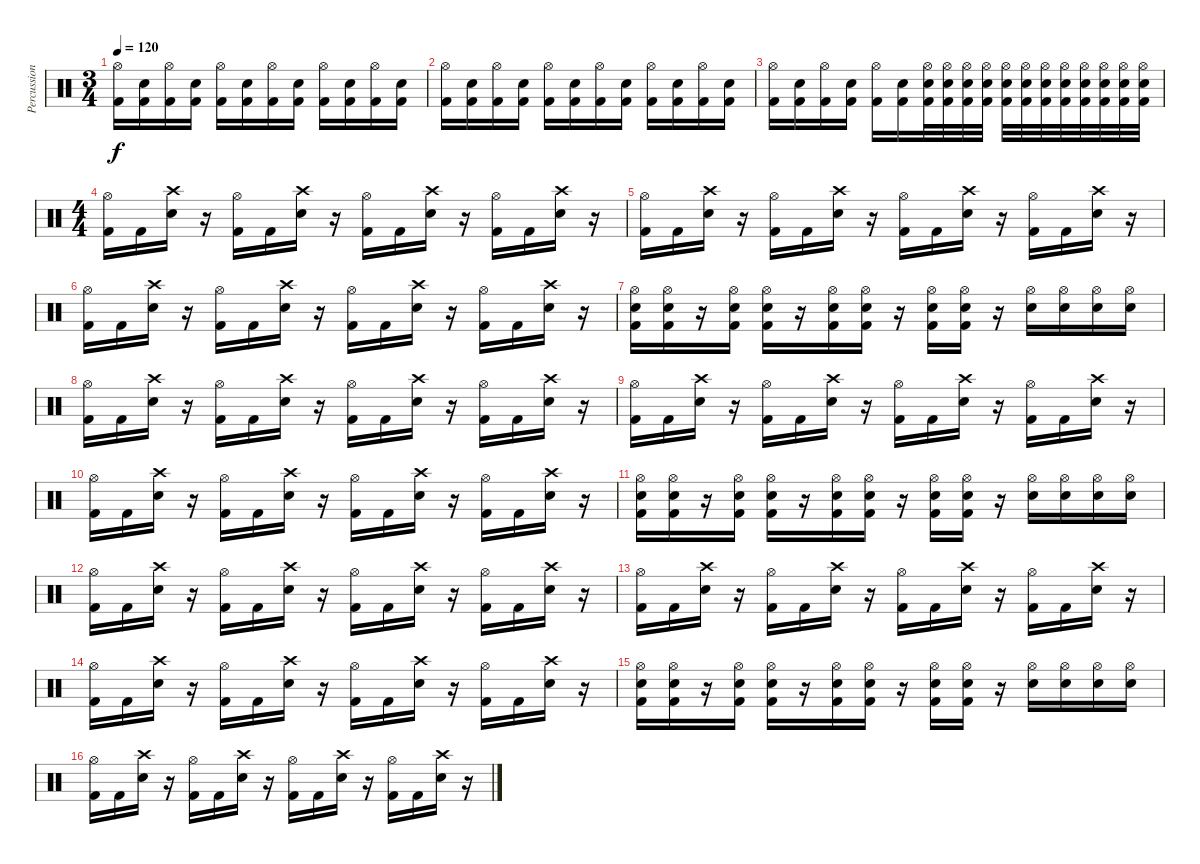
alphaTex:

\track ("Percussion" "Percussion") {instrument percussion}
\staff {score}
\articulation defaults
\ts (3 4)
\tempo 120
\clef neutral
\ks c
("Hi-Hat (open)" "Kick (hit) 2").16{dy f} ("Electric Snare (hit)" "Kick (hit) 2").16 ("Hi-Hat (open)" "Kick (hit) 2").16 ("Electric Snare (hit)" "Kick (hit) 2").16 ("Hi-Hat (open)" "Kick (hit) 2").16 ("Electric Snare (hit)" "Kick (hit) 2").16 ("Hi-Hat (open)" "Kick (hit) 2").16 ("Electric Snare (hit)" "Kick (hit) 2").16 ("Hi-Hat (open)" "Kick (hit) 2").16 ("Electric Snare (hit)" "Kick (hit) 2").16 ("Hi-Hat (open)" "Kick (hit) 2").16 ("Electric Snare (hit)" "Kick (hit) 2").16 |
("Hi-Hat (open)" "Kick (hit) 2").16 ("Electric Snare (hit)" "Kick (hit) 2").16 ("Hi-Hat (open)" "Kick (hit) 2").16 ("Electric Snare (hit)" "Kick (hit) 2").16 ("Hi-Hat (open)" "Kick (hit) 2").16 ("Electric Snare (hit)" "Kick (hit) 2").16 ("Hi-Hat (open)" "Kick (hit) 2").16 ("Electric Snare (hit)" "Kick (hit) 2").16 ("Hi-Hat (open)" "Kick (hit) 2").16 ("Electric Snare (hit)" "Kick (hit) 2").16 ("Hi-Hat (open)" "Kick (hit) 2").16 ("Electric Snare (hit)" "Kick (hit) 2").16 |
("Hi-Hat (open)" "Kick (hit) 2").16 ("Electric Snare (hit)" "Kick (hit) 2").16 ("Hi-Hat (open)" "Kick (hit) 2").16 ("Electric Snare (hit)" "Kick (hit) 2").16 ("Hi-Hat (open)" "Kick (hit) 2").16 ("Electric Snare (hit)" "Kick (hit) 2").16 ("Hi-Hat (open)" "Electric Snare (hit)" "Kick (hit) 2").32 ("Hi-Hat (open)" "Electric Snare (hit)" "Kick (hit) 2").32 ("Hi-Hat (open)" "Electric Snare (hit)" "Kick (hit) 2").32 ("Hi-Hat (open)" "Electric Snare (hit)" "Kick (hit) 2").32 ("Hi-Hat (open)" "Electric Snare (hit)" "Kick (hit) 2").32 ("Hi-Hat (open)" "Electric Snare (hit)" "Kick (hit) 2").32 ("Hi-Hat (open)" "Electric Snare (hit)" "Kick (hit) 2").32 ("Hi-Hat (open)" "Electric Snare (hit)" "Kick (hit) 2").32 ("Hi-Hat (open)" "Electric Snare (hit)" "Kick (hit) 2").32 ("Hi-Hat (open)" "Electric Snare (hit)" "Kick (hit) 2").32 ("Hi-Hat (open)" "Electric Snare (hit)" "Kick (hit) 2").32 ("Hi-Hat (open)" "Electric Snare (hit)" "Kick (hit) 2").32 |
\ts (4 4)
("Hi-Hat (open)" "Kick (hit) 2").16 "Kick (hit) 2".16 ("Crash high (hit)" "Electric Snare (hit)").16 r.16 ("Hi-Hat (open)" "Kick (hit) 2").16 "Kick (hit) 2".16 ("Crash high (hit)" "Electric Snare (hit)").16 r.16 ("Hi-Hat (open)" "Kick (hit) 2").16 "Kick (hit) 2".16 ("Crash high (hit)" "Electric Snare (hit)").16 r.16 ("Hi-Hat (open)" "Kick (hit) 2").16 "Kick (hit) 2".16 ("Crash high (hit)" "Electric Snare (hit)").16 r.16 |
("Hi-Hat (open)" "Kick (hit) 2").16 "Kick (hit) 2".16 ("Crash high (hit)" "Electric Snare (hit)").16 r.16 ("Hi-Hat (open)" "Kick (hit) 2").16 "Kick (hit) 2".16 ("Crash high (hit)" "Electric Snare (hit)").16 r.16 ("Hi-Hat (open)" "Kick (hit) 2").16 "Kick (hit) 2".16 ("Crash high (hit)" "Electric Snare (hit)").16 r.16 ("Hi-Hat (open)" "Kick (hit) 2").16 "Kick (hit) 2".16 ("Crash high (hit)" "Electric Snare (hit)").16 r.16 |
("Hi-Hat (open)" "Kick (hit) 2").16 "Kick (hit) 2".16 ("Crash high (hit)" "Electric Snare (hit)").16 r.16 ("Hi-Hat (open)" "Kick (hit) 2").16 "Kick (hit) 2".16 ("Crash high (hit)" "Electric Snare (hit)").16 r.16 ("Hi-Hat (open)" "Kick (hit) 2").16 "Kick (hit) 2".16 ("Crash high (hit)" "Electric Snare (hit)").16 r.16 ("Hi-Hat (open)" "Kick (hit) 2").16 "Kick (hit) 2".16 ("Crash high (hit)" "Electric Snare (hit)").16 r.16 |
("Hi-Hat (open)" "Electric Snare (hit)" "Kick (hit) 2").16 ("Hi-Hat (open)" "Electric Snare (hit)" "Kick (hit) 2").16 r.16 ("Hi-Hat (open)" "Electric Snare (hit)" "Kick (hit) 2").16 ("Hi-Hat (open)" "Electric Snare (hit)" "Kick (hit) 2").16 r.16 ("Hi-Hat (open)" "Electric Snare (hit)" "Kick (hit) 2").16 ("Hi-Hat (open)" "Electric Snare (hit)" "Kick (hit) 2").16 r.16 ("Hi-Hat (open)" "Electric Snare (hit)" "Kick (hit) 2").16 ("Hi-Hat (open)" "Electric Snare (hit)" "Kick (hit) 2").16 r.16 ("Hi-Hat (open)" "Electric Snare (hit)").16 ("Hi-Hat (open)" "Electric Snare (hit)").16 ("Hi-Hat (open)" "Electric Snare (hit)").16 ("Hi-Hat (open)" "Electric Snare (hit)").16 |
("Hi-Hat (open)" "Kick (hit) 2").16 "Kick (hit) 2".16 ("Crash high (hit)" "Electric Snare (hit)").16 r.16 ("Hi-Hat (open)" "Kick (hit) 2").16 "Kick (hit) 2".16 ("Crash high (hit)" "Electric Snare (hit)").16 r.16 ("Hi-Hat (open)" "Kick (hit) 2").16 "Kick (hit) 2".16 ("Crash high (hit)" "Electric Snare (hit)").16 r.16 ("Hi-Hat (open)" "Kick (hit) 2").16 "Kick (hit) 2".16 ("Crash high (hit)" "Electric Snare (hit)").16 r.16 |
("Hi-Hat (open)" "Kick (hit) 2").16 "Kick (hit) 2".16 ("Crash high (hit)" "Electric Snare (hit)").16 r.16 ("Hi-Hat (open)" "Kick (hit) 2").16 "Kick (hit) 2".16 ("Crash high (hit)" "Electric Snare (hit)").16 r.16 ("Hi-Hat (open)" "Kick (hit) 2").16 "Kick (hit) 2".16 ("Crash high (hit)" "Electric Snare (hit)").16 r.16 ("Hi-Hat (open)" "Kick (hit) 2").16 "Kick (hit) 2".16 ("Crash high (hit)" "Electric Snare (hit)").16 r.16 |
("Hi-Hat (open)" "Kick (hit) 2").16 "Kick (hit) 2".16 ("Crash high (hit)" "Electric Snare (hit)").16 r.16 ("Hi-Hat (open)" "Kick (hit) 2").16 "Kick (hit) 2".16 ("Crash high (hit)" "Electric Snare (hit)").16 r.16 ("Hi-Hat (open)" "Kick (hit) 2").16 "Kick (hit) 2".16 ("Crash high (hit)" "Electric Snare (hit)").16 r.16 ("Hi-Hat (open)" "Kick (hit) 2").16 "Kick (hit) 2".16 ("Crash high (hit)" "Electric Snare (hit)").16 r.16 |
("Hi-Hat (open)" "Electric Snare (hit)" "Kick (hit) 2").16 ("Hi-Hat (open)" "Electric Snare (hit)" "Kick (hit) 2").16 r.16 ("Hi-Hat (open)" "Electric Snare (hit)" "Kick (hit) 2").16 ("Hi-Hat (open)" "Electric Snare (hit)" "Kick (hit) 2").16 r.16 ("Hi-Hat (open)" "Electric Snare (hit)" "Kick (hit) 2").16 ("Hi-Hat (open)" "Electric Snare (hit)" "Kick (hit) 2").16 r.16 ("Hi-Hat (open)" "Electric Snare (hit)" "Kick (hit) 2").16 ("Hi-Hat (open)" "Electric Snare (hit)" "Kick (hit) 2").16 r.16 ("Hi-Hat (open)" "Electric Snare (hit)").16 ("Hi-Hat (open)" "Electric Snare (hit)").16 ("Hi-Hat (open)" "Electric Snare (hit)").16 ("Hi-Hat (open)" "Electric Snare (hit)").16 |
("Hi-Hat (open)" "Kick (hit) 2").16 "Kick (hit) 2".16 ("Crash high (hit)" "Electric Snare (hit)").16 r.16 ("Hi-Hat (open)" "Kick (hit) 2").16 "Kick (hit) 2".16 ("Crash high (hit)" "Electric Snare (hit)").16 r.16 ("Hi-Hat (open)" "Kick (hit) 2").16 "Kick (hit) 2".16 ("Crash high (hit)" "Electric Snare (hit)").16 r.16 ("Hi-Hat (open)" "Kick (hit) 2").16 "Kick (hit) 2".16 ("Crash high (hit)" "Electric Snare (hit)").16 r.16 |
("Hi-Hat (open)" "Kick (hit) 2").16 "Kick (hit) 2".16 ("Crash high (hit)" "Electric Snare (hit)").16 r.16 ("Hi-Hat (open)" "Kick (hit) 2").16 "Kick (hit) 2".16 ("Crash high (hit)" "Electric Snare (hit)").16 r.16 ("Hi-Hat (open)" "Kick (hit) 2").16 "Kick (hit) 2".16 ("Crash high (hit)" "Electric Snare (hit)").16 r.16 ("Hi-Hat (open)" "Kick (hit) 2").16 "Kick (hit) 2".16 ("Crash high (hit)" "Electric Snare (hit)").16 r.16 |
("Hi-Hat (open)" "Kick (hit) 2").16 "Kick (hit) 2".16 ("Crash high (hit)" "Electric Snare (hit)").16 r.16 ("Hi-Hat (open)" "Kick (hit) 2").16 "Kick (hit) 2".16 ("Crash high (hit)" "Electric Snare (hit)").16 r.16 ("Hi-Hat (open)" "Kick (hit) 2").16 "Kick (hit) 2".16 ("Crash high (hit)" "Electric Snare (hit)").16 r.16 ("Hi-Hat (open)" "Kick (hit) 2").16 "Kick (hit) 2".16 ("Crash high (hit)" "Electric Snare (hit)").16 r.16 |
("Hi-Hat (open)" "Electric Snare (hit)" "Kick (hit) 2").16 ("Hi-Hat (open)" "Electric Snare (hit)" "Kick (hit) 2").16 r.16 ("Hi-Hat (open)" "Electric Snare (hit)" "Kick (hit) 2").16 ("Hi-Hat (open)" "Electric Snare (hit)" "Kick (hit) 2").16 r.16 ("Hi-Hat (open)" "Electric Snare (hit)" "Kick (hit) 2").16 ("Hi-Hat (open)" "Electric Snare (hit)" "Kick (hit) 2").16 r.16 ("Hi-Hat (open)" "Electric Snare (hit)" "Kick (hit) 2").16 ("Hi-Hat (open)" "Electric Snare (hit)" "Kick (hit) 2").16 r.16 ("Hi-Hat (open)" "Electric Snare (hit)").16 ("Hi-Hat (open)" "Electric Snare (hit)").16 ("Hi-Hat (open)" "Electric Snare (hit)").16 ("Hi-Hat (open)" "Electric Snare (hit)").16 |
("Hi-Hat (open)" "Kick (hit) 2").16 "Kick (hit) 2".16 ("Crash high (hit)" "Electric Snare (hit)").16 r.16 ("Hi-Hat (open)" "Kick (hit) 2").16 "Kick (hit) 2".16 ("Crash high (hit)" "Electric Snare (hit)").16 r.16 ("Hi-Hat (open)" "Kick (hit) 2").16 "Kick (hit) 2".16 ("Crash high (hit)" "Electric Snare (hit)").16 r.16 ("Hi-Hat (open)" "Kick (hit) 2").16 "Kick (hit) 2".16 ("Crash high (hit)" "Electric Snare (hit)").16 r.16
